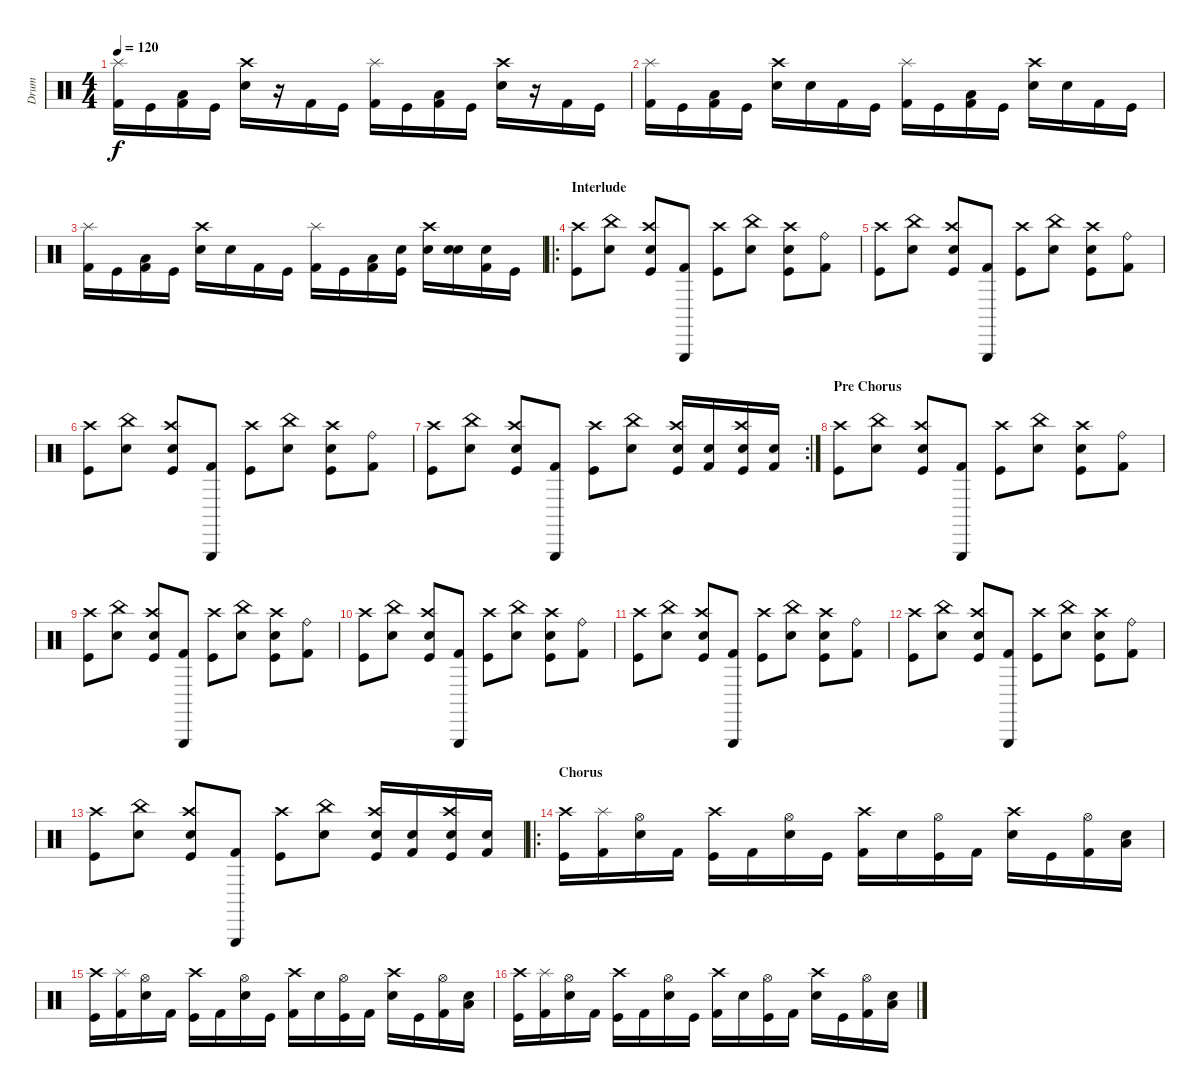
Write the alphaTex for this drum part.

\track ("Drum" "Drum") {instrument percussion}
\staff {score}
\articulation defaults
\ts (4 4)
\tempo 120
\clef neutral
\ks c
("Splash (hit)" "Kick (hit) 2").16{dy f} "Kick (hit)".16 ("Low Floor Tom (hit)" "Kick (hit) 2").16 "Kick (hit)".16 ("Crash high (hit)" "Electric Snare (hit)").16 r.16 "Kick (hit) 2".16 "Kick (hit)".16 ("Splash (hit)" "Kick (hit) 2").16 "Kick (hit)".16 ("Low Floor Tom (hit)" "Kick (hit) 2").16 "Kick (hit)".16 ("Crash high (hit)" "Electric Snare (hit)").16 r.16 "Kick (hit) 2".16 "Kick (hit)".16 |
("Splash (hit)" "Kick (hit) 2").16 "Kick (hit)".16 ("Low Floor Tom (hit)" "Kick (hit) 2").16 "Kick (hit)".16 ("Crash high (hit)" "Electric Snare (hit)").16 "Snare (hit) 2".16 "Kick (hit) 2".16 "Kick (hit)".16 ("Splash (hit)" "Kick (hit) 2").16 "Kick (hit)".16 ("Low Floor Tom (hit)" "Kick (hit) 2").16 "Kick (hit)".16 ("Crash high (hit)" "Electric Snare (hit)").16 "Snare (hit) 2".16 "Kick (hit) 2".16 "Kick (hit)".16 |
("Splash (hit)" "Kick (hit) 2").16 "Kick (hit)".16 ("Low Floor Tom (hit)" "Kick (hit) 2").16 "Kick (hit)".16 ("Crash high (hit)" "Electric Snare (hit)").16 "Snare (hit) 2".16 "Kick (hit) 2".16 "Kick (hit)".16 ("Splash (hit)" "Kick (hit) 2").16 "Kick (hit)".16 ("Low Floor Tom (hit)" "Kick (hit) 2").16 ("Snare (hit) 2" "Kick (hit)").16 ("Crash high (hit)" "Snare (hit) 2").16 ("Snare (hit) 2" "Snare (hit) 2").16 ("Snare (hit) 2" "Kick (hit) 2").16 "Kick (hit)".16 |
\ro
\section ("" "Interlude")
("Crash high (hit)" "Kick (hit)").8 ("China (hit)" "Metronome (bell)").8 ("Crash high (hit)" "Snare (hit) 2" "Kick (hit)").8 ("Triangle (hit)" "Kick (hit) 2").8 ("Crash high (hit)" "Kick (hit)").8 ("China (hit)" "Metronome (bell)").8 ("Crash high (hit)" "Snare (hit) 2" "Kick (hit)").8 ("Ride (bell)" "Kick (hit) 2").8 |
("Crash high (hit)" "Kick (hit)").8 ("China (hit)" "Metronome (bell)").8 ("Crash high (hit)" "Snare (hit) 2" "Kick (hit)").8 ("Triangle (hit)" "Kick (hit) 2").8 ("Crash high (hit)" "Kick (hit)").8 ("China (hit)" "Metronome (bell)").8 ("Crash high (hit)" "Snare (hit) 2" "Kick (hit)").8 ("Ride (bell)" "Kick (hit) 2").8 |
("Crash high (hit)" "Kick (hit)").8 ("China (hit)" "Metronome (bell)").8 ("Crash high (hit)" "Snare (hit) 2" "Kick (hit)").8 ("Triangle (hit)" "Kick (hit) 2").8 ("Crash high (hit)" "Kick (hit)").8 ("China (hit)" "Metronome (bell)").8 ("Crash high (hit)" "Snare (hit) 2" "Kick (hit)").8 ("Ride (bell)" "Kick (hit) 2").8 |
\rc 2
("Crash high (hit)" "Kick (hit)").8 ("China (hit)" "Metronome (bell)").8 ("Crash high (hit)" "Snare (hit) 2" "Kick (hit)").8 ("Triangle (hit)" "Kick (hit) 2").8 ("Crash high (hit)" "Kick (hit)").8 ("China (hit)" "Metronome (bell)").8 ("Crash high (hit)" "Snare (hit) 2" "Kick (hit)").16 ("Snare (hit) 2" "Kick (hit) 2").16 ("Crash high (hit)" "Snare (hit) 2" "Kick (hit)").16 ("Snare (hit) 2" "Kick (hit) 2").16 |
\section ("" "Pre Chorus")
("Crash high (hit)" "Kick (hit)").8 ("China (hit)" "Metronome (bell)").8 ("Crash high (hit)" "Snare (hit) 2" "Kick (hit)").8 ("Triangle (hit)" "Kick (hit) 2").8 ("Crash high (hit)" "Kick (hit)").8 ("China (hit)" "Metronome (bell)").8 ("Crash high (hit)" "Snare (hit) 2" "Kick (hit)").8 ("Ride (bell)" "Kick (hit) 2").8 |
("Crash high (hit)" "Kick (hit)").8 ("China (hit)" "Metronome (bell)").8 ("Crash high (hit)" "Snare (hit) 2" "Kick (hit)").8 ("Triangle (hit)" "Kick (hit) 2").8 ("Crash high (hit)" "Kick (hit)").8 ("China (hit)" "Metronome (bell)").8 ("Crash high (hit)" "Snare (hit) 2" "Kick (hit)").8 ("Ride (bell)" "Kick (hit) 2").8 |
("Crash high (hit)" "Kick (hit)").8 ("China (hit)" "Metronome (bell)").8 ("Crash high (hit)" "Snare (hit) 2" "Kick (hit)").8 ("Triangle (hit)" "Kick (hit) 2").8 ("Crash high (hit)" "Kick (hit)").8 ("China (hit)" "Metronome (bell)").8 ("Crash high (hit)" "Snare (hit) 2" "Kick (hit)").8 ("Ride (bell)" "Kick (hit) 2").8 |
("Crash high (hit)" "Kick (hit)").8 ("China (hit)" "Metronome (bell)").8 ("Crash high (hit)" "Snare (hit) 2" "Kick (hit)").8 ("Triangle (hit)" "Kick (hit) 2").8 ("Crash high (hit)" "Kick (hit)").8 ("China (hit)" "Metronome (bell)").8 ("Crash high (hit)" "Snare (hit) 2" "Kick (hit)").8 ("Ride (bell)" "Kick (hit) 2").8 |
("Crash high (hit)" "Kick (hit)").8 ("China (hit)" "Metronome (bell)").8 ("Crash high (hit)" "Snare (hit) 2" "Kick (hit)").8 ("Triangle (hit)" "Kick (hit) 2").8 ("Crash high (hit)" "Kick (hit)").8 ("China (hit)" "Metronome (bell)").8 ("Crash high (hit)" "Snare (hit) 2" "Kick (hit)").8 ("Ride (bell)" "Kick (hit) 2").8 |
("Crash high (hit)" "Kick (hit)").8 ("China (hit)" "Metronome (bell)").8 ("Crash high (hit)" "Snare (hit) 2" "Kick (hit)").8 ("Triangle (hit)" "Kick (hit) 2").8 ("Crash high (hit)" "Kick (hit)").8 ("China (hit)" "Metronome (bell)").8 ("Crash high (hit)" "Snare (hit) 2" "Kick (hit)").16 ("Snare (hit) 2" "Kick (hit) 2").16 ("Crash high (hit)" "Snare (hit) 2" "Kick (hit)").16 ("Snare (hit) 2" "Kick (hit) 2").16 |
\ro
\section ("" "Chorus")
("Crash high (hit)" "Kick (hit)").16 ("Splash (hit)" "Kick (hit) 2").16 ("Hi-Hat (open)" "Snare (hit) 2").16 "Kick (hit) 2".16 ("Crash high (hit)" "Kick (hit)").16 "Kick (hit) 2".16 ("Hi-Hat (open)" "Snare (hit) 2").16 "Kick (hit)".16 ("Crash high (hit)" "Kick (hit) 2").16 "Snare (hit) 2".16 ("Hi-Hat (open)" "Kick (hit)").16 "Kick (hit) 2".16 ("Crash high (hit)" "Snare (hit) 2").16 "Kick (hit)".16 ("Hi-Hat (open)" "Kick (hit) 2").16 ("Low Tom (hit)" "Snare (hit) 2").16 |
("Crash high (hit)" "Kick (hit)").16 ("Splash (hit)" "Kick (hit) 2").16 ("Hi-Hat (open)" "Snare (hit) 2").16 "Kick (hit) 2".16 ("Crash high (hit)" "Kick (hit)").16 "Kick (hit) 2".16 ("Hi-Hat (open)" "Snare (hit) 2").16 "Kick (hit)".16 ("Crash high (hit)" "Kick (hit) 2").16 "Snare (hit) 2".16 ("Hi-Hat (open)" "Kick (hit)").16 "Kick (hit) 2".16 ("Crash high (hit)" "Snare (hit) 2").16 "Kick (hit)".16 ("Hi-Hat (open)" "Kick (hit) 2").16 ("Low Tom (hit)" "Snare (hit) 2").16 |
("Crash high (hit)" "Kick (hit)").16 ("Splash (hit)" "Kick (hit) 2").16 ("Hi-Hat (open)" "Snare (hit) 2").16 "Kick (hit) 2".16 ("Crash high (hit)" "Kick (hit)").16 "Kick (hit) 2".16 ("Hi-Hat (open)" "Snare (hit) 2").16 "Kick (hit)".16 ("Crash high (hit)" "Kick (hit) 2").16 "Snare (hit) 2".16 ("Hi-Hat (open)" "Kick (hit)").16 "Kick (hit) 2".16 ("Crash high (hit)" "Snare (hit) 2").16 "Kick (hit)".16 ("Hi-Hat (open)" "Kick (hit) 2").16 ("Low Tom (hit)" "Snare (hit) 2").16
